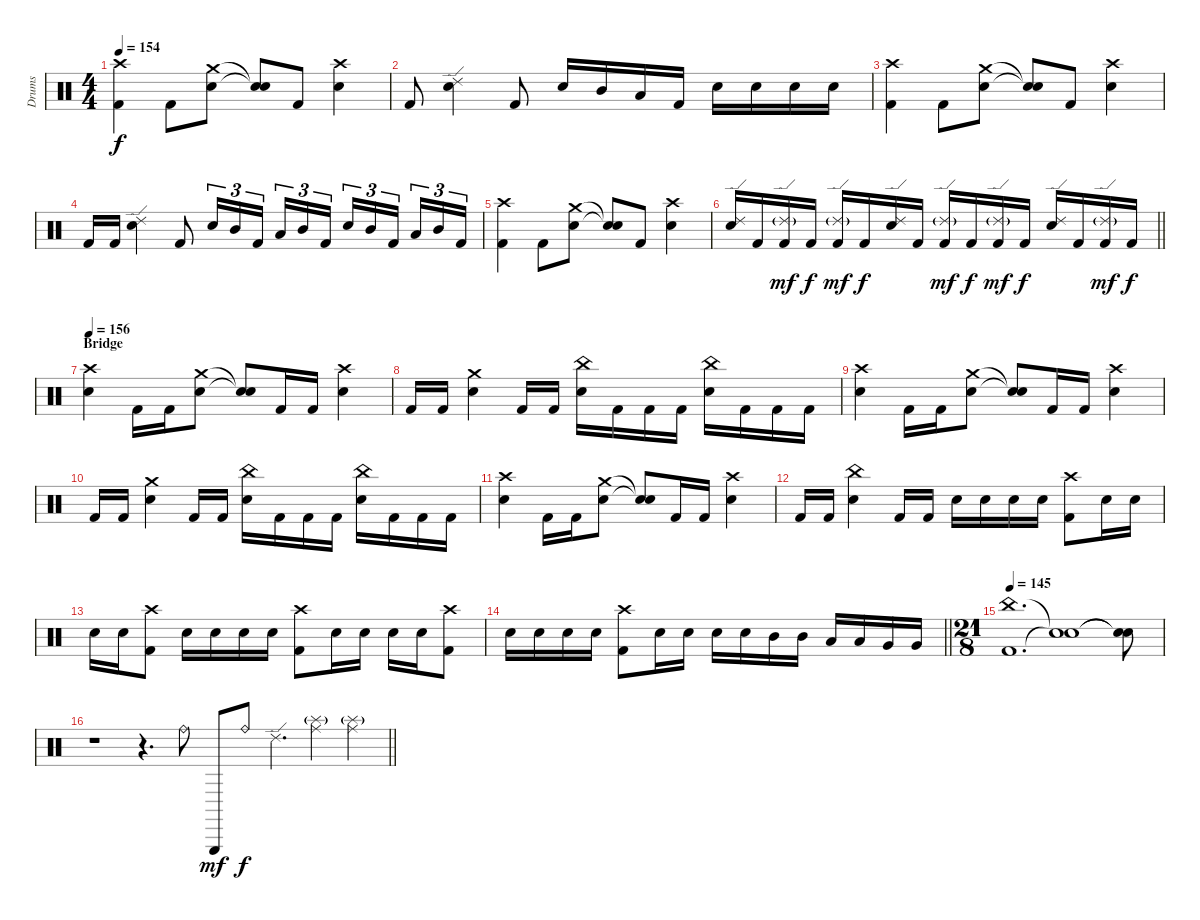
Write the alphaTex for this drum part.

\track ("Drums" "Drums") {instrument percussion}
\staff {score}
\articulation defaults
\ts (4 4)
\tempo 154
\clef neutral
\ks c
("Crash high (hit)" "Kick (hit) 2").4{dy f} "Kick (hit) 2".8 ("Crash medium (hit)" "Snare (hit) 2").8 ("Snare (hit)"{t} "Snare (hit)"{t}).8 "Kick (hit) 2".8 ("Crash high (hit)" "Snare (hit) 2").4 |
"Kick (hit) 2".8 ("Ride (edge) 2" "Snare (hit) 2").4 "Kick (hit) 2".8 "Snare (hit) 2".16 "Mid Tom (hit)".16 "Low Tom (hit)".16 "Kick (hit) 2".16 "Snare (hit) 2".16 "Snare (hit) 2".16 "Snare (hit) 2".16 "Snare (hit) 2".16 |
("Crash high (hit)" "Kick (hit) 2").4 "Kick (hit) 2".8 ("Crash medium (hit)" "Snare (hit) 2").8 ("Snare (hit)"{t} "Snare (hit)"{t}).8 "Kick (hit) 2".8 ("Crash high (hit)" "Snare (hit) 2").4 |
"Kick (hit) 2".16 "Kick (hit) 2".16 ("Ride (edge) 2" "Snare (hit) 2").4 "Kick (hit) 2".8 "Snare (hit) 2".16{tu (3 2)} "Mid Tom (hit)".16{tu (3 2)} "Kick (hit) 2".16{tu (3 2) beam splitsecondary} "Low Tom (hit)".16{tu (3 2)} "Mid Tom (hit)".16{tu (3 2)} "Kick (hit) 2".16{tu (3 2)} "Snare (hit) 2".16{tu (3 2)} "Mid Tom (hit)".16{tu (3 2)} "Kick (hit) 2".16{tu (3 2) beam splitsecondary} "Low Tom (hit)".16{tu (3 2)} "Mid Tom (hit)".16{tu (3 2)} "Kick (hit) 2".16{tu (3 2)} |
("Crash high (hit)" "Kick (hit) 2").4 "Kick (hit) 2".8 ("Crash medium (hit)" "Snare (hit) 2").8 ("Snare (hit)"{t} "Snare (hit)"{t}).8 "Kick (hit) 2".8 ("Crash high (hit)" "Snare (hit) 2").4 |
\barLineRight lightlight
("Ride (edge) 2" "Snare (hit) 2").16 "Kick (hit) 2".16 ("Ride (edge) 2"{g} "Kick (hit) 2").16{dy mf} "Kick (hit) 2".16{dy f} ("Ride (edge) 2"{g} "Kick (hit) 2").16{dy mf} "Kick (hit) 2".16{dy f} ("Ride (edge) 2" "Snare (hit) 2").16 "Kick (hit) 2".16 ("Ride (edge) 2"{g} "Kick (hit) 2").16{dy mf} "Kick (hit) 2".16{dy f} ("Ride (edge) 2"{g} "Kick (hit) 2").16{dy mf} "Kick (hit) 2".16{dy f} ("Ride (edge) 2" "Snare (hit) 2").16 "Kick (hit) 2".16 ("Ride (edge) 2"{g} "Kick (hit) 2").16{dy mf} "Kick (hit) 2".16{dy f} |
\section ("" "Bridge")
\tempo 156
("Crash high (hit)" "Snare (hit) 2").4 "Kick (hit) 2".16 "Kick (hit) 2".16 ("Crash medium (hit)" "Snare (hit) 2").8 ("Snare (hit)"{t} "Snare (hit)"{t}).8 "Kick (hit) 2".16 "Kick (hit) 2".16 ("Crash high (hit)" "Snare (hit) 2").4 |
"Kick (hit) 2".16 "Kick (hit) 2".16 ("Crash medium (hit)" "Snare (hit) 2").4 "Kick (hit) 2".16 "Kick (hit) 2".16 ("China (hit)" "Snare (hit) 2").16 "Kick (hit) 2".16 "Kick (hit) 2".16 "Kick (hit) 2".16 ("China (hit)" "Snare (hit) 2").16 "Kick (hit) 2".16 "Kick (hit) 2".16 "Kick (hit) 2".16 |
("Crash high (hit)" "Snare (hit) 2").4 "Kick (hit) 2".16 "Kick (hit) 2".16 ("Crash medium (hit)" "Snare (hit) 2").8 ("Snare (hit)"{t} "Snare (hit)"{t}).8 "Kick (hit) 2".16 "Kick (hit) 2".16 ("Crash high (hit)" "Snare (hit) 2").4 |
"Kick (hit) 2".16 "Kick (hit) 2".16 ("Crash medium (hit)" "Snare (hit) 2").4 "Kick (hit) 2".16 "Kick (hit) 2".16 ("China (hit)" "Snare (hit) 2").16 "Kick (hit) 2".16 "Kick (hit) 2".16 "Kick (hit) 2".16 ("China (hit)" "Snare (hit) 2").16 "Kick (hit) 2".16 "Kick (hit) 2".16 "Kick (hit) 2".16 |
("Crash high (hit)" "Snare (hit) 2").4 "Kick (hit) 2".16 "Kick (hit) 2".16 ("Crash medium (hit)" "Snare (hit) 2").8 ("Snare (hit)"{t} "Snare (hit)"{t}).8 "Kick (hit) 2".16 "Kick (hit) 2".16 ("Crash high (hit)" "Snare (hit) 2").4 |
"Kick (hit) 2".16 "Kick (hit) 2".16 ("China (hit)" "Snare (hit) 2").4 "Kick (hit) 2".16 "Kick (hit) 2".16 "Snare (hit) 2".16 "Snare (hit) 2".16 "Snare (hit) 2".16 "Snare (hit) 2".16 ("Crash high (hit)" "Kick (hit) 2").8 "Snare (hit) 2".16 "Snare (hit) 2".16 |
"Snare (hit) 2".16 "Snare (hit) 2".16 ("Crash high (hit)" "Kick (hit) 2").8 "Snare (hit) 2".16 "Snare (hit) 2".16 "Snare (hit) 2".16 "Snare (hit) 2".16 ("Crash high (hit)" "Kick (hit) 2").8 "Snare (hit) 2".16 "Snare (hit) 2".16 "Snare (hit) 2".16 "Snare (hit) 2".16 ("Crash high (hit)" "Kick (hit) 2").8 |
\barLineRight lightlight "Snare (hit) 2".16 "Snare (hit) 2".16 "Snare (hit) 2".16 "Snare (hit) 2".16
("Crash high (hit)" "Kick (hit) 2").8 "Snare (hit) 2".16 "Snare (hit) 2".16 "Snare (hit) 2".16 "Snare (hit) 2".16 "Mid Tom (hit)".16 "Mid Tom (hit)".16 "Low Tom (hit)".16 "Low Tom (hit)".16 "Very Low Tom (hit)".16 "Very Low Tom (hit)".16 |
\ts (21 8)
\section ("" "")
\tempo 145
("China (hit)" "Kick (hit) 2").1{d} ("Snare (hit)"{t} "Snare (hit)"{t}).1 ("Snare (hit)"{t} "Snare (hit)"{t}).8 |
\barLineRight lightlight
r.1 r.4{d} "Ride (bell)".8 "Triangle (hit)".8{dy mf} "Ride (bell)".8{dy f} "Ride (edge) 2".4{d} ("Splash (hit)"{g} "Ride (middle)").4 ("Splash (hit)"{g} "Ride (middle)").4
